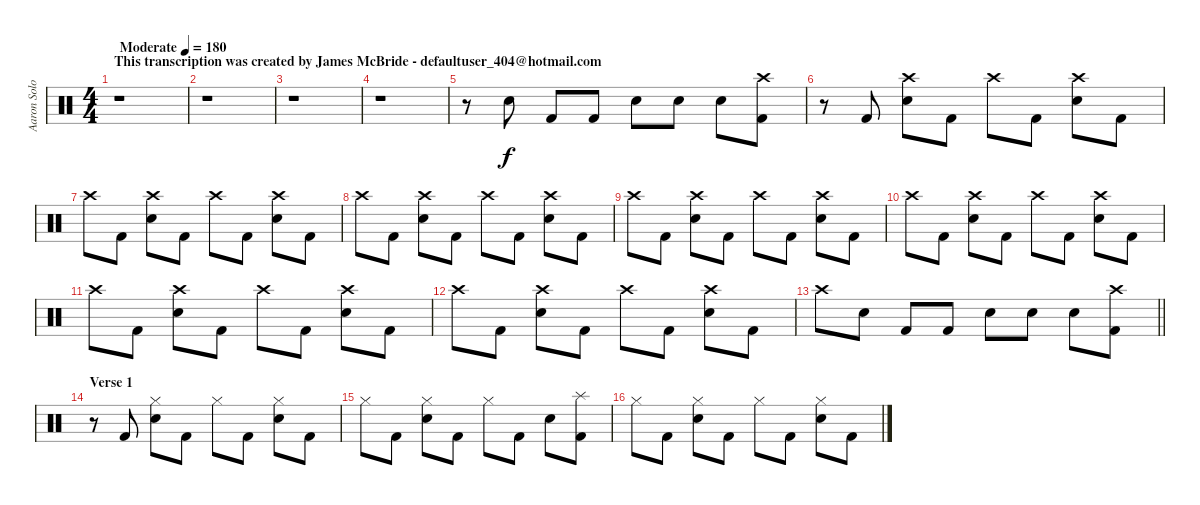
\track ("Aaron Solowoniuk" "Aaron Solo") {instrument percussion}
\staff {score}
\articulation defaults
\ts (4 4)
\section ("" "This transcription was created by James McBride - defaultuser_404@hotmail.com")
\tempo (180 "Moderate")
\clef neutral
\ks c
r.1{dy f} |
r.1 |
r.1 |
r.1 |
r.8 "Electric Snare (hit)".8 "Kick (hit) 2".8 "Kick (hit) 2".8 "Electric Snare (hit)".8 "Electric Snare (hit)".8 "Electric Snare (hit)".8 ("Crash high (hit)" "Kick (hit) 2").8 |
r.8 "Kick (hit) 2".8 ("Crash high (hit)" "Electric Snare (hit)").8 "Kick (hit) 2".8 "Crash high (hit)".8 "Kick (hit) 2".8 ("Crash high (hit)" "Electric Snare (hit)").8 "Kick (hit) 2".8 |
"Crash high (hit)".8 "Kick (hit) 2".8 ("Crash high (hit)" "Electric Snare (hit)").8 "Kick (hit) 2".8 "Crash high (hit)".8 "Kick (hit) 2".8 ("Crash high (hit)" "Electric Snare (hit)").8 "Kick (hit) 2".8 |
"Crash high (hit)".8 "Kick (hit) 2".8 ("Crash high (hit)" "Electric Snare (hit)").8 "Kick (hit) 2".8 "Crash high (hit)".8 "Kick (hit) 2".8 ("Crash high (hit)" "Electric Snare (hit)").8 "Kick (hit) 2".8 |
"Crash high (hit)".8 "Kick (hit) 2".8 ("Crash high (hit)" "Electric Snare (hit)").8 "Kick (hit) 2".8 "Crash high (hit)".8 "Kick (hit) 2".8 ("Crash high (hit)" "Electric Snare (hit)").8 "Kick (hit) 2".8 |
"Crash high (hit)".8 "Kick (hit) 2".8 ("Crash high (hit)" "Electric Snare (hit)").8 "Kick (hit) 2".8 "Crash high (hit)".8 "Kick (hit) 2".8 ("Crash high (hit)" "Electric Snare (hit)").8 "Kick (hit) 2".8 |
"Crash high (hit)".8 "Kick (hit) 2".8 ("Crash high (hit)" "Electric Snare (hit)").8 "Kick (hit) 2".8 "Crash high (hit)".8 "Kick (hit) 2".8 ("Crash high (hit)" "Electric Snare (hit)").8 "Kick (hit) 2".8 |
"Crash high (hit)".8 "Kick (hit) 2".8 ("Crash high (hit)" "Electric Snare (hit)").8 "Kick (hit) 2".8 "Crash high (hit)".8 "Kick (hit) 2".8 ("Crash high (hit)" "Electric Snare (hit)").8 "Kick (hit) 2".8 |
\barLineRight lightlight "Crash high (hit)".8 "Electric Snare (hit)".8 "Kick (hit) 2".8 "Kick (hit) 2".8 "Electric Snare (hit)".8 "Electric Snare (hit)".8 "Electric Snare (hit)".8
("Crash high (hit)" "Kick (hit) 2").8 |
\section ("" "Verse 1")
r.8 "Kick (hit) 2".8 ("Hi-Hat (closed)" "Electric Snare (hit)").8 "Kick (hit) 2".8 "Hi-Hat (closed)".8 "Kick (hit) 2".8 ("Hi-Hat (closed)" "Electric Snare (hit)").8 "Kick (hit) 2".8 |
"Hi-Hat (closed)".8 "Kick (hit) 2".8 ("Hi-Hat (closed)" "Electric Snare (hit)").8 "Kick (hit) 2".8 "Hi-Hat (closed)".8 "Kick (hit) 2".8 "Electric Snare (hit)".8 ("Splash (hit)" "Kick (hit) 2").8 |
"Hi-Hat (closed)".8 "Kick (hit) 2".8 ("Hi-Hat (closed)" "Electric Snare (hit)").8 "Kick (hit) 2".8 "Hi-Hat (closed)".8 "Kick (hit) 2".8 ("Hi-Hat (closed)" "Electric Snare (hit)").8 "Kick (hit) 2".8
